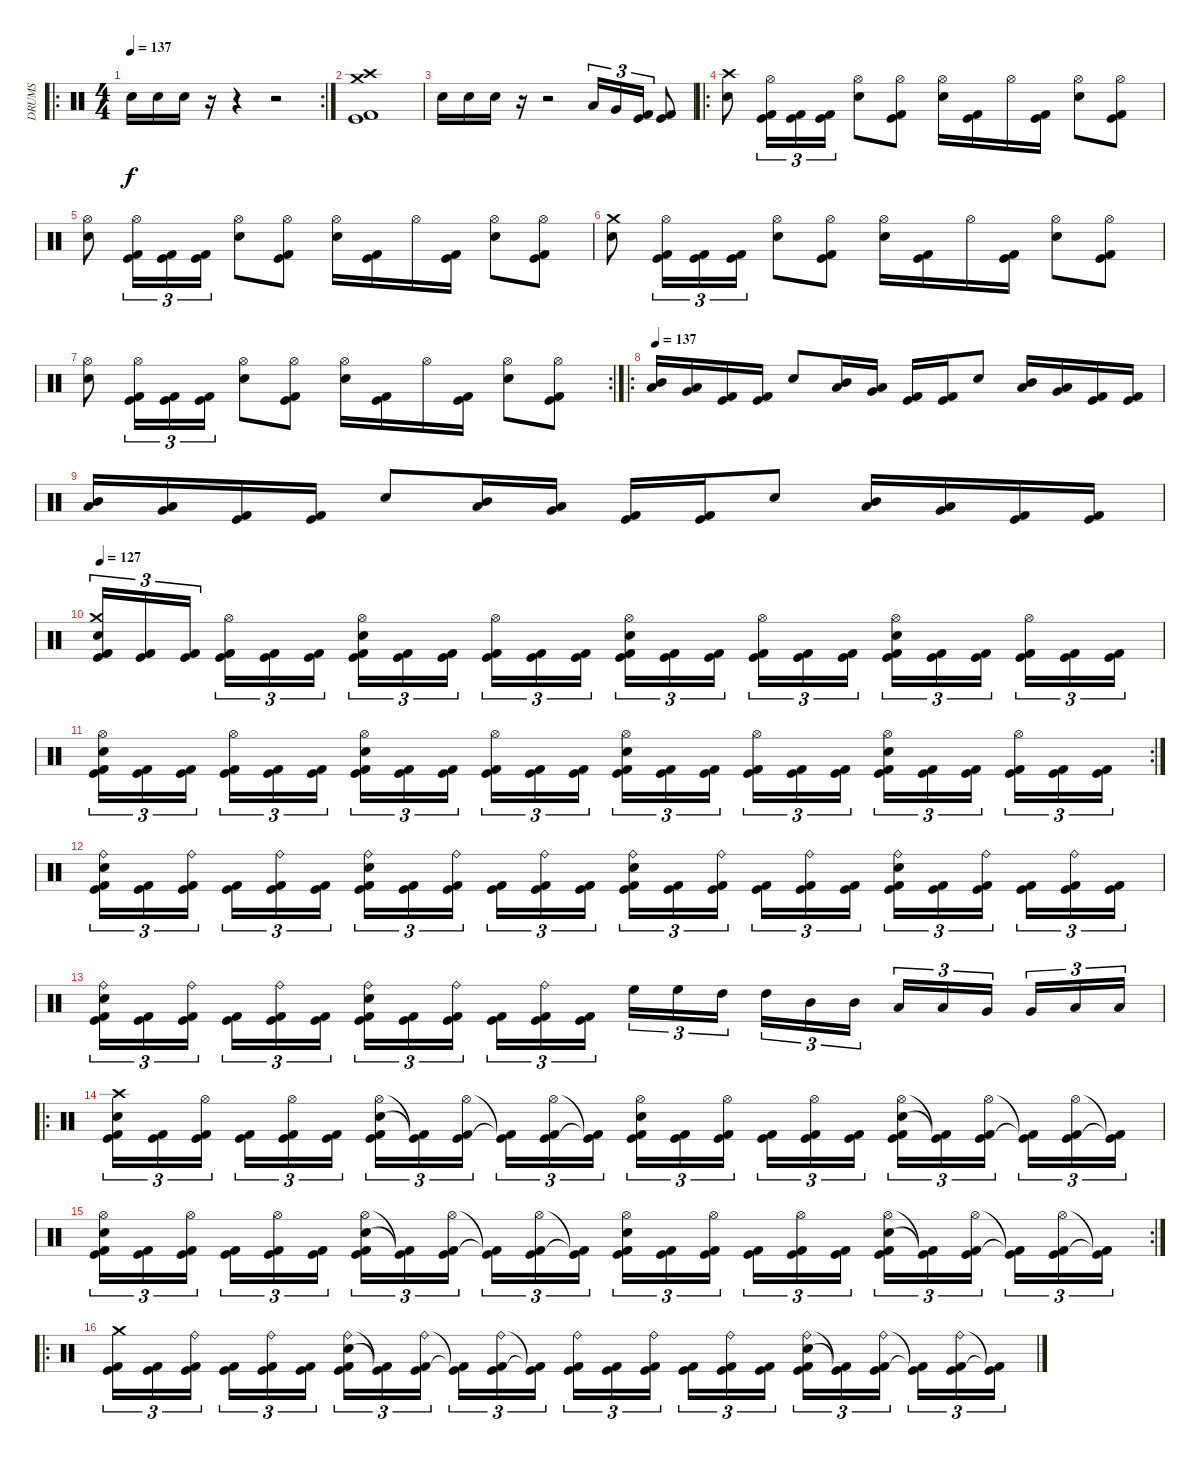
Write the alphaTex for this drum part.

\track ("DRUMS" "DRUMS") {instrument percussion}
\staff {score}
\articulation defaults
\ro
\rc 2
\ts (4 4)
\tempo 137
\clef neutral
\ks c "Snare (hit) 2".16{dy f} "Snare (hit) 2".16 "Snare (hit) 2".16
r.16 r.4 r.2 |
("Crash medium (hit)" "Crash high (hit)" "Kick (hit)" "Kick (hit) 2").1 |
"Snare (hit) 2".16 "Snare (hit) 2".16 "Snare (hit) 2".16 r.16 r.2 "Low Tom (hit)".16{tu (3 2)} "Very Low Tom (hit)".16{tu (3 2)} ("Kick (hit)" "Kick (hit) 2").16{tu (3 2)} ("Kick (hit)" "Kick (hit) 2").8 |
\ro
("Crash high (hit)" "Snare (hit) 2").8 ("Hi-Hat (open)" "Kick (hit)" "Kick (hit) 2").16{tu (3 2)} ("Kick (hit)" "Kick (hit) 2").16{tu (3 2)} ("Kick (hit)" "Kick (hit) 2").16{tu (3 2)} ("Hi-Hat (open)" "Snare (hit) 2").8 ("Hi-Hat (open)" "Kick (hit)" "Kick (hit) 2").8 ("Hi-Hat (open)" "Snare (hit) 2").16 ("Kick (hit)" "Kick (hit) 2").16 "Hi-Hat (open)".16 ("Kick (hit)" "Kick (hit) 2").16 ("Hi-Hat (open)" "Snare (hit) 2").8 ("Hi-Hat (open)" "Kick (hit)" "Kick (hit) 2").8 |
("Hi-Hat (open)" "Snare (hit) 2").8 ("Hi-Hat (open)" "Kick (hit)" "Kick (hit) 2").16{tu (3 2)} ("Kick (hit)" "Kick (hit) 2").16{tu (3 2)} ("Kick (hit)" "Kick (hit) 2").16{tu (3 2)} ("Hi-Hat (open)" "Snare (hit) 2").8 ("Hi-Hat (open)" "Kick (hit)" "Kick (hit) 2").8 ("Hi-Hat (open)" "Snare (hit) 2").16 ("Kick (hit)" "Kick (hit) 2").16 "Hi-Hat (open)".16 ("Kick (hit)" "Kick (hit) 2").16 ("Hi-Hat (open)" "Snare (hit) 2").8 ("Hi-Hat (open)" "Kick (hit)" "Kick (hit) 2").8 |
("Crash medium (hit)" "Snare (hit) 2").8 ("Hi-Hat (open)" "Kick (hit)" "Kick (hit) 2").16{tu (3 2)} ("Kick (hit)" "Kick (hit) 2").16{tu (3 2)} ("Kick (hit)" "Kick (hit) 2").16{tu (3 2)} ("Hi-Hat (open)" "Snare (hit) 2").8 ("Hi-Hat (open)" "Kick (hit)" "Kick (hit) 2").8 ("Hi-Hat (open)" "Snare (hit) 2").16 ("Kick (hit)" "Kick (hit) 2").16 "Hi-Hat (open)".16 ("Kick (hit)" "Kick (hit) 2").16 ("Hi-Hat (open)" "Snare (hit) 2").8 ("Hi-Hat (open)" "Kick (hit)" "Kick (hit) 2").8 |
\rc 2
("Hi-Hat (open)" "Snare (hit) 2").8 ("Hi-Hat (open)" "Kick (hit)" "Kick (hit) 2").16{tu (3 2)} ("Kick (hit)" "Kick (hit) 2").16{tu (3 2)} ("Kick (hit)" "Kick (hit) 2").16{tu (3 2)} ("Hi-Hat (open)" "Snare (hit) 2").8 ("Hi-Hat (open)" "Kick (hit)" "Kick (hit) 2").8 ("Hi-Hat (open)" "Snare (hit) 2").16 ("Kick (hit)" "Kick (hit) 2").16 "Hi-Hat (open)".16 ("Kick (hit)" "Kick (hit) 2").16 ("Hi-Hat (open)" "Snare (hit) 2").8 ("Hi-Hat (open)" "Kick (hit)" "Kick (hit) 2").8 |
\ro
\tempo 137
("Mid Tom (hit)" "Low Tom (hit)").16 ("Low Tom (hit)" "Very Low Tom (hit)").16 ("Kick (hit)" "Kick (hit) 2").16 ("Kick (hit)" "Kick (hit) 2").16 "Snare (hit) 2".8 ("Mid Tom (hit)" "Low Tom (hit)").16 ("Low Tom (hit)" "Very Low Tom (hit)").16 ("Kick (hit)" "Kick (hit) 2").16 ("Kick (hit)" "Kick (hit) 2").16 "Snare (hit) 2".8 ("Mid Tom (hit)" "Low Tom (hit)").16 ("Low Tom (hit)" "Very Low Tom (hit)").16 ("Kick (hit)" "Kick (hit) 2").16 ("Kick (hit)" "Kick (hit) 2").16 |
("Mid Tom (hit)" "Low Tom (hit)").16 ("Low Tom (hit)" "Very Low Tom (hit)").16 ("Kick (hit)" "Kick (hit) 2").16 ("Kick (hit)" "Kick (hit) 2").16 "Snare (hit) 2".8 ("Mid Tom (hit)" "Low Tom (hit)").16 ("Low Tom (hit)" "Very Low Tom (hit)").16 ("Kick (hit)" "Kick (hit) 2").16 ("Kick (hit)" "Kick (hit) 2").16 "Snare (hit) 2".8 ("Mid Tom (hit)" "Low Tom (hit)").16 ("Low Tom (hit)" "Very Low Tom (hit)").16 ("Kick (hit)" "Kick (hit) 2").16 ("Kick (hit)" "Kick (hit) 2").16 |
\tempo 127
("Crash medium (hit)" "Snare (hit) 2" "Kick (hit)" "Kick (hit) 2").16{tu (3 2)} ("Kick (hit)" "Kick (hit) 2").16{tu (3 2)} ("Kick (hit)" "Kick (hit) 2").16{tu (3 2)} ("Hi-Hat (open)" "Kick (hit)" "Kick (hit) 2").16{tu (3 2)} ("Kick (hit)" "Kick (hit) 2").16{tu (3 2)} ("Kick (hit)" "Kick (hit) 2").16{tu (3 2)} ("Hi-Hat (open)" "Snare (hit) 2" "Kick (hit)" "Kick (hit) 2").16{tu (3 2)} ("Kick (hit)" "Kick (hit) 2").16{tu (3 2)} ("Kick (hit)" "Kick (hit) 2").16{tu (3 2)} ("Hi-Hat (open)" "Kick (hit)" "Kick (hit) 2").16{tu (3 2)} ("Kick (hit)" "Kick (hit) 2").16{tu (3 2)} ("Kick (hit)" "Kick (hit) 2").16{tu (3 2)} ("Hi-Hat (open)" "Snare (hit) 2" "Kick (hit)" "Kick (hit) 2").16{tu (3 2)} ("Kick (hit)" "Kick (hit) 2").16{tu (3 2)} ("Kick (hit)" "Kick (hit) 2").16{tu (3 2)} ("Hi-Hat (open)" "Kick (hit)" "Kick (hit) 2").16{tu (3 2)} ("Kick (hit)" "Kick (hit) 2").16{tu (3 2)} ("Kick (hit)" "Kick (hit) 2").16{tu (3 2)} ("Hi-Hat (open)" "Snare (hit) 2" "Kick (hit)" "Kick (hit) 2").16{tu (3 2)} ("Kick (hit)" "Kick (hit) 2").16{tu (3 2)} ("Kick (hit)" "Kick (hit) 2").16{tu (3 2)} ("Hi-Hat (open)" "Kick (hit)" "Kick (hit) 2").16{tu (3 2)} ("Kick (hit)" "Kick (hit) 2").16{tu (3 2)} ("Kick (hit)" "Kick (hit) 2").16{tu (3 2)} |
\rc 2
("Hi-Hat (open)" "Snare (hit) 2" "Kick (hit)" "Kick (hit) 2").16{tu (3 2)} ("Kick (hit)" "Kick (hit) 2").16{tu (3 2)} ("Kick (hit)" "Kick (hit) 2").16{tu (3 2)} ("Hi-Hat (open)" "Kick (hit)" "Kick (hit) 2").16{tu (3 2)} ("Kick (hit)" "Kick (hit) 2").16{tu (3 2)} ("Kick (hit)" "Kick (hit) 2").16{tu (3 2)} ("Hi-Hat (open)" "Snare (hit) 2" "Kick (hit)" "Kick (hit) 2").16{tu (3 2)} ("Kick (hit)" "Kick (hit) 2").16{tu (3 2)} ("Kick (hit)" "Kick (hit) 2").16{tu (3 2)} ("Hi-Hat (open)" "Kick (hit)" "Kick (hit) 2").16{tu (3 2)} ("Kick (hit)" "Kick (hit) 2").16{tu (3 2)} ("Kick (hit)" "Kick (hit) 2").16{tu (3 2)} ("Hi-Hat (open)" "Snare (hit) 2" "Kick (hit)" "Kick (hit) 2").16{tu (3 2)} ("Kick (hit)" "Kick (hit) 2").16{tu (3 2)} ("Kick (hit)" "Kick (hit) 2").16{tu (3 2)} ("Hi-Hat (open)" "Kick (hit)" "Kick (hit) 2").16{tu (3 2)} ("Kick (hit)" "Kick (hit) 2").16{tu (3 2)} ("Kick (hit)" "Kick (hit) 2").16{tu (3 2)} ("Hi-Hat (open)" "Snare (hit) 2" "Kick (hit)" "Kick (hit) 2").16{tu (3 2)} ("Kick (hit)" "Kick (hit) 2").16{tu (3 2)} ("Kick (hit)" "Kick (hit) 2").16{tu (3 2)} ("Hi-Hat (open)" "Kick (hit)" "Kick (hit) 2").16{tu (3 2)} ("Kick (hit)" "Kick (hit) 2").16{tu (3 2)} ("Kick (hit)" "Kick (hit) 2").16{tu (3 2)} |
("Ride (bell)" "Snare (hit) 2" "Kick (hit)" "Kick (hit) 2").16{tu (3 2)} ("Kick (hit)" "Kick (hit) 2").16{tu (3 2)} ("Ride (bell)" "Kick (hit)" "Kick (hit) 2").16{tu (3 2)} ("Kick (hit)" "Kick (hit) 2").16{tu (3 2)} ("Ride (bell)" "Kick (hit)" "Kick (hit) 2").16{tu (3 2)} ("Kick (hit)" "Kick (hit) 2").16{tu (3 2)} ("Ride (bell)" "Snare (hit) 2" "Kick (hit)" "Kick (hit) 2").16{tu (3 2)} ("Kick (hit)" "Kick (hit) 2").16{tu (3 2)} ("Ride (bell)" "Kick (hit)" "Kick (hit) 2").16{tu (3 2)} ("Kick (hit)" "Kick (hit) 2").16{tu (3 2)} ("Ride (bell)" "Kick (hit)" "Kick (hit) 2").16{tu (3 2)} ("Kick (hit)" "Kick (hit) 2").16{tu (3 2)} ("Ride (bell)" "Snare (hit) 2" "Kick (hit)" "Kick (hit) 2").16{tu (3 2)} ("Kick (hit)" "Kick (hit) 2").16{tu (3 2)} ("Ride (bell)" "Kick (hit)" "Kick (hit) 2").16{tu (3 2)} ("Kick (hit)" "Kick (hit) 2").16{tu (3 2)} ("Ride (bell)" "Kick (hit)" "Kick (hit) 2").16{tu (3 2)} ("Kick (hit)" "Kick (hit) 2").16{tu (3 2)} ("Ride (bell)" "Snare (hit) 2" "Kick (hit)" "Kick (hit) 2").16{tu (3 2)} ("Kick (hit)" "Kick (hit) 2").16{tu (3 2)} ("Ride (bell)" "Kick (hit)" "Kick (hit) 2").16{tu (3 2)} ("Kick (hit)" "Kick (hit) 2").16{tu (3 2)} ("Ride (bell)" "Kick (hit)" "Kick (hit) 2").16{tu (3 2)} ("Kick (hit)" "Kick (hit) 2").16{tu (3 2)} |
("Ride (bell)" "Snare (hit) 2" "Kick (hit)" "Kick (hit) 2").16{tu (3 2)} ("Kick (hit)" "Kick (hit) 2").16{tu (3 2)} ("Ride (bell)" "Kick (hit)" "Kick (hit) 2").16{tu (3 2)} ("Kick (hit)" "Kick (hit) 2").16{tu (3 2)} ("Ride (bell)" "Kick (hit)" "Kick (hit) 2").16{tu (3 2)} ("Kick (hit)" "Kick (hit) 2").16{tu (3 2)} ("Ride (bell)" "Snare (hit) 2" "Kick (hit)" "Kick (hit) 2").16{tu (3 2)} ("Kick (hit)" "Kick (hit) 2").16{tu (3 2)} ("Ride (bell)" "Kick (hit)" "Kick (hit) 2").16{tu (3 2)} ("Kick (hit)" "Kick (hit) 2").16{tu (3 2)} ("Ride (bell)" "Kick (hit)" "Kick (hit) 2").16{tu (3 2)} ("Kick (hit)" "Kick (hit) 2").16{tu (3 2)} "High Floor Tom (hit)".16{tu (3 2)} "High Floor Tom (hit)".16{tu (3 2)} "High Tom (hit)".16{tu (3 2)} "High Tom (hit)".16{tu (3 2)} "Mid Tom (hit)".16{tu (3 2)} "Mid Tom (hit)".16{tu (3 2)} "Low Tom (hit)".16{tu (3 2)} "Low Tom (hit)".16{tu (3 2)} "Very Low Tom (hit)".16{tu (3 2)} "Very Low Tom (hit)".16{tu (3 2)} "Low Floor Tom (hit)".16{tu (3 2)} "Low Floor Tom (hit)".16{tu (3 2)} |
\ro
("Crash high (hit)" "Snare (hit) 2" "Kick (hit)" "Kick (hit) 2").16{tu (3 2)} ("Kick (hit)" "Kick (hit) 2").16{tu (3 2)} ("Hi-Hat (open)" "Kick (hit)" "Kick (hit) 2").16{tu (3 2)} ("Kick (hit)" "Kick (hit) 2").16{tu (3 2)} ("Hi-Hat (open)" "Kick (hit)" "Kick (hit) 2").16{tu (3 2)} ("Kick (hit)" "Kick (hit) 2").16{tu (3 2)} ("Hi-Hat (open)" "Snare (hit) 2" "Kick (hit)" "Kick (hit) 2").16{tu (3 2)} ("Kick (hit)"{t} "Kick (hit) 2"{t}).16{tu (3 2)} ("Hi-Hat (open)" "Kick (hit)" "Kick (hit) 2").16{tu (3 2)} ("Kick (hit)"{t} "Kick (hit) 2"{t}).16{tu (3 2)} ("Hi-Hat (open)" "Kick (hit)" "Kick (hit) 2").16{tu (3 2)} ("Kick (hit)"{t} "Kick (hit) 2"{t}).16{tu (3 2)} ("Hi-Hat (open)" "Snare (hit) 2" "Kick (hit)" "Kick (hit) 2").16{tu (3 2)} ("Kick (hit)" "Kick (hit) 2").16{tu (3 2)} ("Hi-Hat (open)" "Kick (hit)" "Kick (hit) 2").16{tu (3 2)} ("Kick (hit)" "Kick (hit) 2").16{tu (3 2)} ("Hi-Hat (open)" "Kick (hit)" "Kick (hit) 2").16{tu (3 2)} ("Kick (hit)" "Kick (hit) 2").16{tu (3 2)} ("Hi-Hat (open)" "Snare (hit) 2" "Kick (hit)" "Kick (hit) 2").16{tu (3 2)} ("Kick (hit)"{t} "Kick (hit) 2"{t}).16{tu (3 2)} ("Hi-Hat (open)" "Kick (hit)" "Kick (hit) 2").16{tu (3 2)} ("Kick (hit)"{t} "Kick (hit) 2"{t}).16{tu (3 2)} ("Hi-Hat (open)" "Kick (hit)" "Kick (hit) 2").16{tu (3 2)} ("Kick (hit)"{t} "Kick (hit) 2"{t}).16{tu (3 2)} |
\rc 2
("Hi-Hat (open)" "Snare (hit) 2" "Kick (hit)" "Kick (hit) 2").16{tu (3 2)} ("Kick (hit)" "Kick (hit) 2").16{tu (3 2)} ("Hi-Hat (open)" "Kick (hit)" "Kick (hit) 2").16{tu (3 2)} ("Kick (hit)" "Kick (hit) 2").16{tu (3 2)} ("Hi-Hat (open)" "Kick (hit)" "Kick (hit) 2").16{tu (3 2)} ("Kick (hit)" "Kick (hit) 2").16{tu (3 2)} ("Hi-Hat (open)" "Snare (hit) 2" "Kick (hit)" "Kick (hit) 2").16{tu (3 2)} ("Kick (hit)"{t} "Kick (hit) 2"{t}).16{tu (3 2)} ("Hi-Hat (open)" "Kick (hit)" "Kick (hit) 2").16{tu (3 2)} ("Kick (hit)"{t} "Kick (hit) 2"{t}).16{tu (3 2)} ("Hi-Hat (open)" "Kick (hit)" "Kick (hit) 2").16{tu (3 2)} ("Kick (hit)"{t} "Kick (hit) 2"{t}).16{tu (3 2)} ("Hi-Hat (open)" "Snare (hit) 2" "Kick (hit)" "Kick (hit) 2").16{tu (3 2)} ("Kick (hit)" "Kick (hit) 2").16{tu (3 2)} ("Hi-Hat (open)" "Kick (hit)" "Kick (hit) 2").16{tu (3 2)} ("Kick (hit)" "Kick (hit) 2").16{tu (3 2)} ("Hi-Hat (open)" "Kick (hit)" "Kick (hit) 2").16{tu (3 2)} ("Kick (hit)" "Kick (hit) 2").16{tu (3 2)} ("Hi-Hat (open)" "Snare (hit) 2" "Kick (hit)" "Kick (hit) 2").16{tu (3 2)} ("Kick (hit)"{t} "Kick (hit) 2"{t}).16{tu (3 2)} ("Hi-Hat (open)" "Kick (hit)" "Kick (hit) 2").16{tu (3 2)} ("Kick (hit)"{t} "Kick (hit) 2"{t}).16{tu (3 2)} ("Hi-Hat (open)" "Kick (hit)" "Kick (hit) 2").16{tu (3 2)} ("Kick (hit)"{t} "Kick (hit) 2"{t}).16{tu (3 2)} |
\ro
("Crash medium (hit)" "Kick (hit)" "Kick (hit) 2").16{tu (3 2)} ("Kick (hit)" "Kick (hit) 2").16{tu (3 2)} ("Ride (bell)" "Kick (hit)" "Kick (hit) 2").16{tu (3 2)} ("Kick (hit)" "Kick (hit) 2").16{tu (3 2)} ("Ride (bell)" "Kick (hit)" "Kick (hit) 2").16{tu (3 2)} ("Kick (hit)" "Kick (hit) 2").16{tu (3 2)} ("Ride (bell)" "Snare (hit) 2" "Kick (hit)" "Kick (hit) 2").16{tu (3 2)} ("Kick (hit)"{t} "Kick (hit) 2"{t}).16{tu (3 2)} ("Ride (bell)" "Kick (hit)" "Kick (hit) 2").16{tu (3 2)} ("Kick (hit)"{t} "Kick (hit) 2"{t}).16{tu (3 2)} ("Ride (bell)" "Kick (hit)" "Kick (hit) 2").16{tu (3 2)} ("Kick (hit)"{t} "Kick (hit) 2"{t}).16{tu (3 2)} ("Ride (bell)" "Kick (hit)" "Kick (hit) 2").16{tu (3 2)} ("Kick (hit)" "Kick (hit) 2").16{tu (3 2)} ("Ride (bell)" "Kick (hit)" "Kick (hit) 2").16{tu (3 2)} ("Kick (hit)" "Kick (hit) 2").16{tu (3 2)} ("Ride (bell)" "Kick (hit)" "Kick (hit) 2").16{tu (3 2)} ("Kick (hit)" "Kick (hit) 2").16{tu (3 2)} ("Ride (bell)" "Snare (hit) 2" "Kick (hit)" "Kick (hit) 2").16{tu (3 2)} ("Kick (hit)"{t} "Kick (hit) 2"{t}).16{tu (3 2)} ("Ride (bell)" "Kick (hit)" "Kick (hit) 2").16{tu (3 2)} ("Kick (hit)"{t} "Kick (hit) 2"{t}).16{tu (3 2)} ("Ride (bell)" "Kick (hit)" "Kick (hit) 2").16{tu (3 2)} ("Kick (hit)"{t} "Kick (hit) 2"{t}).16{tu (3 2)}
